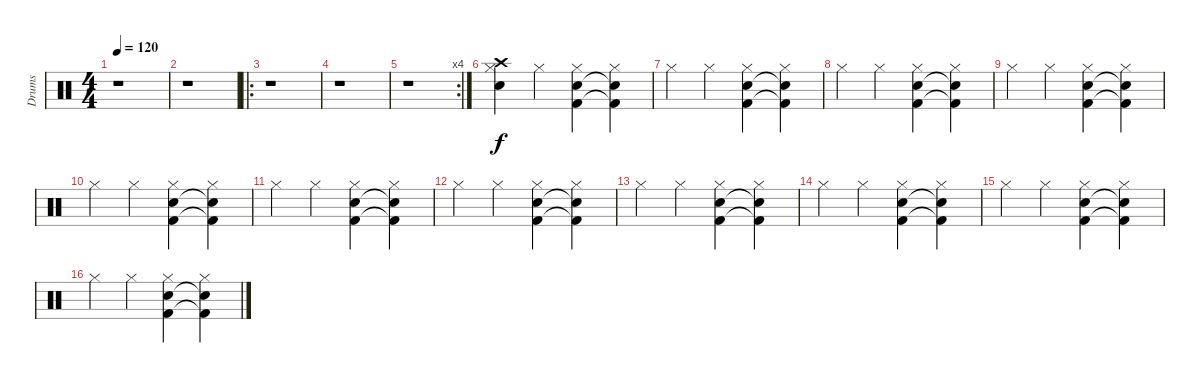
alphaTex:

\track ("Drums" "Drums") {instrument percussion}
\staff {score}
\articulation defaults
\ts (4 4)
\tempo 120
\clef neutral
\ks c
r.1{dy f} |
r.1 |
\ro
r.1 |
r.1 |
\rc 4
r.1 |
("Crash high (hit)" "Hi-Hat (closed)" "Snare (hit) 2").4 "Hi-Hat (closed)".4 ("Hi-Hat (closed)" "Snare (hit) 2" "Kick (hit) 2").4 ("Hi-Hat (closed)" "Snare (hit) 2"{t} "Kick (hit) 2"{t}).4 |
"Hi-Hat (closed)".4 "Hi-Hat (closed)".4 ("Hi-Hat (closed)" "Snare (hit) 2" "Kick (hit) 2").4 ("Hi-Hat (closed)" "Snare (hit) 2"{t} "Kick (hit) 2"{t}).4 |
"Hi-Hat (closed)".4 "Hi-Hat (closed)".4 ("Hi-Hat (closed)" "Snare (hit) 2" "Kick (hit) 2").4 ("Hi-Hat (closed)" "Snare (hit) 2"{t} "Kick (hit) 2"{t}).4 |
"Hi-Hat (closed)".4 "Hi-Hat (closed)".4 ("Hi-Hat (closed)" "Snare (hit) 2" "Kick (hit) 2").4 ("Hi-Hat (closed)" "Snare (hit) 2"{t} "Kick (hit) 2"{t}).4 |
"Hi-Hat (closed)".4 "Hi-Hat (closed)".4 ("Hi-Hat (closed)" "Snare (hit) 2" "Kick (hit) 2").4 ("Hi-Hat (closed)" "Snare (hit) 2"{t} "Kick (hit) 2"{t}).4 |
"Hi-Hat (closed)".4 "Hi-Hat (closed)".4 ("Hi-Hat (closed)" "Snare (hit) 2" "Kick (hit) 2").4 ("Hi-Hat (closed)" "Snare (hit) 2"{t} "Kick (hit) 2"{t}).4 |
"Hi-Hat (closed)".4 "Hi-Hat (closed)".4 ("Hi-Hat (closed)" "Snare (hit) 2" "Kick (hit) 2").4 ("Hi-Hat (closed)" "Snare (hit) 2"{t} "Kick (hit) 2"{t}).4 |
"Hi-Hat (closed)".4 "Hi-Hat (closed)".4 ("Hi-Hat (closed)" "Snare (hit) 2" "Kick (hit) 2").4 ("Hi-Hat (closed)" "Snare (hit) 2"{t} "Kick (hit) 2"{t}).4 |
"Hi-Hat (closed)".4 "Hi-Hat (closed)".4 ("Hi-Hat (closed)" "Snare (hit) 2" "Kick (hit) 2").4 ("Hi-Hat (closed)" "Snare (hit) 2"{t} "Kick (hit) 2"{t}).4 |
"Hi-Hat (closed)".4 "Hi-Hat (closed)".4 ("Hi-Hat (closed)" "Snare (hit) 2" "Kick (hit) 2").4 ("Hi-Hat (closed)" "Snare (hit) 2"{t} "Kick (hit) 2"{t}).4 |
"Hi-Hat (closed)".4 "Hi-Hat (closed)".4 ("Hi-Hat (closed)" "Snare (hit) 2" "Kick (hit) 2").4 ("Hi-Hat (closed)" "Snare (hit) 2"{t} "Kick (hit) 2"{t}).4
